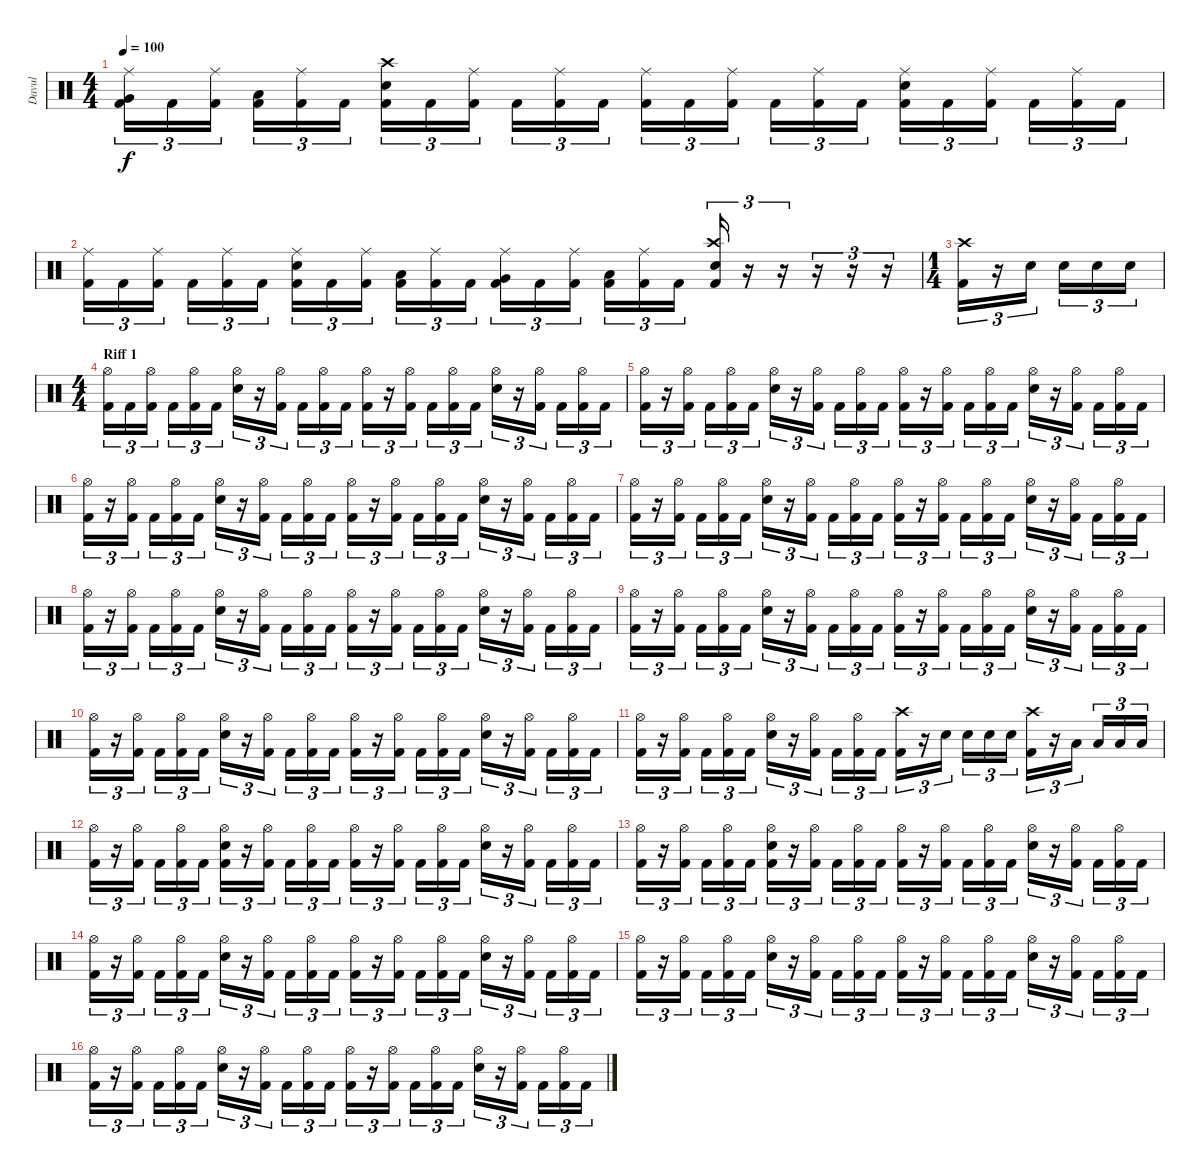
\track ("Davul" "Davul") {instrument percussion}
\staff {score}
\articulation defaults
\ts (4 4)
\tempo 100
\clef neutral
\ks c
("Ride (middle)" "Very Low Tom (hit)" "Kick (hit) 2").16{tu (3 2) dy f} "Kick (hit) 2".16{tu (3 2)} ("Ride (middle)" "Kick (hit) 2").16{tu (3 2)} ("Low Floor Tom (hit)" "Kick (hit) 2").16{tu (3 2)} ("Ride (middle)" "Kick (hit) 2").16{tu (3 2)} "Kick (hit) 2".16{tu (3 2)} ("Crash high (hit)" "Electric Snare (hit)" "Kick (hit) 2").16{tu (3 2)} "Kick (hit) 2".16{tu (3 2)} ("Ride (middle)" "Kick (hit) 2").16{tu (3 2)} "Kick (hit) 2".16{tu (3 2)} ("Ride (middle)" "Kick (hit) 2").16{tu (3 2)} "Kick (hit) 2".16{tu (3 2)} ("Ride (middle)" "Kick (hit) 2").16{tu (3 2)} "Kick (hit) 2".16{tu (3 2)} ("Ride (middle)" "Kick (hit) 2").16{tu (3 2)} "Kick (hit) 2".16{tu (3 2)} ("Ride (middle)" "Kick (hit) 2").16{tu (3 2)} "Kick (hit) 2".16{tu (3 2)} ("Ride (middle)" "Electric Snare (hit)" "Kick (hit) 2").16{tu (3 2)} "Kick (hit) 2".16{tu (3 2)} ("Ride (middle)" "Kick (hit) 2").16{tu (3 2)} "Kick (hit) 2".16{tu (3 2)} ("Ride (middle)" "Kick (hit) 2").16{tu (3 2)} "Kick (hit) 2".16{tu (3 2)} |
("Ride (middle)" "Kick (hit) 2").16{tu (3 2)} "Kick (hit) 2".16{tu (3 2)} ("Ride (middle)" "Kick (hit) 2").16{tu (3 2)} "Kick (hit) 2".16{tu (3 2)} ("Ride (middle)" "Kick (hit) 2").16{tu (3 2)} "Kick (hit) 2".16{tu (3 2)} ("Ride (middle)" "Electric Snare (hit)" "Kick (hit) 2").16{tu (3 2)} "Kick (hit) 2".16{tu (3 2)} ("Ride (middle)" "Kick (hit) 2").16{tu (3 2)} ("Low Tom (hit)" "Kick (hit) 2").16{tu (3 2)} ("Ride (middle)" "Kick (hit) 2").16{tu (3 2)} "Kick (hit) 2".16{tu (3 2)} ("Ride (middle)" "Very Low Tom (hit)" "Kick (hit) 2").16{tu (3 2)} "Kick (hit) 2".16{tu (3 2)} ("Ride (middle)" "Kick (hit) 2").16{tu (3 2)} ("Low Floor Tom (hit)" "Kick (hit) 2").16{tu (3 2)} ("Ride (middle)" "Kick (hit) 2").16{tu (3 2)} "Kick (hit) 2".16{tu (3 2)} ("Crash high (hit)" "Electric Snare (hit)" "Kick (hit) 2").16{tu (3 2)} r.16{tu (3 2)} r.16{tu (3 2)} r.16{tu (3 2)} r.16{tu (3 2)} r.16{tu (3 2)} |
\ts (1 4)
("Crash high (hit)" "Kick (hit) 2").16{tu (3 2)} r.16{tu (3 2)} "Electric Snare (hit)".16{tu (3 2)} "Electric Snare (hit)".16{tu (3 2)} "Electric Snare (hit)".16{tu (3 2)} "Electric Snare (hit)".16{tu (3 2)} |
\ts (4 4)
\section ("" "Riff 1")
("Hi-Hat (open)" "Kick (hit) 2").16{tu (3 2)} "Kick (hit) 2".16{tu (3 2)} ("Hi-Hat (open)" "Kick (hit) 2").16{tu (3 2)} "Kick (hit) 2".16{tu (3 2)} ("Hi-Hat (open)" "Kick (hit) 2").16{tu (3 2)} "Kick (hit) 2".16{tu (3 2)} ("Hi-Hat (open)" "Electric Snare (hit)").16{tu (3 2)} r.16{tu (3 2)} ("Hi-Hat (open)" "Kick (hit) 2").16{tu (3 2)} "Kick (hit) 2".16{tu (3 2)} ("Hi-Hat (open)" "Kick (hit) 2").16{tu (3 2)} "Kick (hit) 2".16{tu (3 2)} ("Hi-Hat (open)" "Kick (hit) 2").16{tu (3 2)} r.16{tu (3 2)} ("Hi-Hat (open)" "Kick (hit) 2").16{tu (3 2)} "Kick (hit) 2".16{tu (3 2)} ("Hi-Hat (open)" "Kick (hit) 2").16{tu (3 2)} "Kick (hit) 2".16{tu (3 2)} ("Hi-Hat (open)" "Electric Snare (hit)").16{tu (3 2)} r.16{tu (3 2)} ("Hi-Hat (open)" "Kick (hit) 2").16{tu (3 2)} "Kick (hit) 2".16{tu (3 2)} ("Hi-Hat (open)" "Kick (hit) 2").16{tu (3 2)} "Kick (hit) 2".16{tu (3 2)} |
("Hi-Hat (open)" "Kick (hit) 2").16{tu (3 2)} r.16{tu (3 2)} ("Hi-Hat (open)" "Kick (hit) 2").16{tu (3 2)} "Kick (hit) 2".16{tu (3 2)} ("Hi-Hat (open)" "Kick (hit) 2").16{tu (3 2)} "Kick (hit) 2".16{tu (3 2)} ("Hi-Hat (open)" "Electric Snare (hit)").16{tu (3 2)} r.16{tu (3 2)} ("Hi-Hat (open)" "Kick (hit) 2").16{tu (3 2)} "Kick (hit) 2".16{tu (3 2)} ("Hi-Hat (open)" "Kick (hit) 2").16{tu (3 2)} "Kick (hit) 2".16{tu (3 2)} ("Hi-Hat (open)" "Kick (hit) 2").16{tu (3 2)} r.16{tu (3 2)} ("Hi-Hat (open)" "Kick (hit) 2").16{tu (3 2)} "Kick (hit) 2".16{tu (3 2)} ("Hi-Hat (open)" "Kick (hit) 2").16{tu (3 2)} "Kick (hit) 2".16{tu (3 2)} ("Hi-Hat (open)" "Electric Snare (hit)").16{tu (3 2)} r.16{tu (3 2)} ("Hi-Hat (open)" "Kick (hit) 2").16{tu (3 2)} "Kick (hit) 2".16{tu (3 2)} ("Hi-Hat (open)" "Kick (hit) 2").16{tu (3 2)} "Kick (hit) 2".16{tu (3 2)} |
("Hi-Hat (open)" "Kick (hit) 2").16{tu (3 2)} r.16{tu (3 2)} ("Hi-Hat (open)" "Kick (hit) 2").16{tu (3 2)} "Kick (hit) 2".16{tu (3 2)} ("Hi-Hat (open)" "Kick (hit) 2").16{tu (3 2)} "Kick (hit) 2".16{tu (3 2)} ("Hi-Hat (open)" "Electric Snare (hit)").16{tu (3 2)} r.16{tu (3 2)} ("Hi-Hat (open)" "Kick (hit) 2").16{tu (3 2)} "Kick (hit) 2".16{tu (3 2)} ("Hi-Hat (open)" "Kick (hit) 2").16{tu (3 2)} "Kick (hit) 2".16{tu (3 2)} ("Hi-Hat (open)" "Kick (hit) 2").16{tu (3 2)} r.16{tu (3 2)} ("Hi-Hat (open)" "Kick (hit) 2").16{tu (3 2)} "Kick (hit) 2".16{tu (3 2)} ("Hi-Hat (open)" "Kick (hit) 2").16{tu (3 2)} "Kick (hit) 2".16{tu (3 2)} ("Hi-Hat (open)" "Electric Snare (hit)").16{tu (3 2)} r.16{tu (3 2)} ("Hi-Hat (open)" "Kick (hit) 2").16{tu (3 2)} "Kick (hit) 2".16{tu (3 2)} ("Hi-Hat (open)" "Kick (hit) 2").16{tu (3 2)} "Kick (hit) 2".16{tu (3 2)} |
("Hi-Hat (open)" "Kick (hit) 2").16{tu (3 2)} r.16{tu (3 2)} ("Hi-Hat (open)" "Kick (hit) 2").16{tu (3 2)} "Kick (hit) 2".16{tu (3 2)} ("Hi-Hat (open)" "Kick (hit) 2").16{tu (3 2)} "Kick (hit) 2".16{tu (3 2)} ("Hi-Hat (open)" "Electric Snare (hit)").16{tu (3 2)} r.16{tu (3 2)} ("Hi-Hat (open)" "Kick (hit) 2").16{tu (3 2)} "Kick (hit) 2".16{tu (3 2)} ("Hi-Hat (open)" "Kick (hit) 2").16{tu (3 2)} "Kick (hit) 2".16{tu (3 2)} ("Hi-Hat (open)" "Kick (hit) 2").16{tu (3 2)} r.16{tu (3 2)} ("Hi-Hat (open)" "Kick (hit) 2").16{tu (3 2)} "Kick (hit) 2".16{tu (3 2)} ("Hi-Hat (open)" "Kick (hit) 2").16{tu (3 2)} "Kick (hit) 2".16{tu (3 2)} ("Hi-Hat (open)" "Electric Snare (hit)").16{tu (3 2)} r.16{tu (3 2)} ("Hi-Hat (open)" "Kick (hit) 2").16{tu (3 2)} "Kick (hit) 2".16{tu (3 2)} ("Hi-Hat (open)" "Kick (hit) 2").16{tu (3 2)} "Kick (hit) 2".16{tu (3 2)} |
("Hi-Hat (open)" "Kick (hit) 2").16{tu (3 2)} r.16{tu (3 2)} ("Hi-Hat (open)" "Kick (hit) 2").16{tu (3 2)} "Kick (hit) 2".16{tu (3 2)} ("Hi-Hat (open)" "Kick (hit) 2").16{tu (3 2)} "Kick (hit) 2".16{tu (3 2)} ("Hi-Hat (open)" "Electric Snare (hit)").16{tu (3 2)} r.16{tu (3 2)} ("Hi-Hat (open)" "Kick (hit) 2").16{tu (3 2)} "Kick (hit) 2".16{tu (3 2)} ("Hi-Hat (open)" "Kick (hit) 2").16{tu (3 2)} "Kick (hit) 2".16{tu (3 2)} ("Hi-Hat (open)" "Kick (hit) 2").16{tu (3 2)} r.16{tu (3 2)} ("Hi-Hat (open)" "Kick (hit) 2").16{tu (3 2)} "Kick (hit) 2".16{tu (3 2)} ("Hi-Hat (open)" "Kick (hit) 2").16{tu (3 2)} "Kick (hit) 2".16{tu (3 2)} ("Hi-Hat (open)" "Electric Snare (hit)").16{tu (3 2)} r.16{tu (3 2)} ("Hi-Hat (open)" "Kick (hit) 2").16{tu (3 2)} "Kick (hit) 2".16{tu (3 2)} ("Hi-Hat (open)" "Kick (hit) 2").16{tu (3 2)} "Kick (hit) 2".16{tu (3 2)} |
("Hi-Hat (open)" "Kick (hit) 2").16{tu (3 2)} r.16{tu (3 2)} ("Hi-Hat (open)" "Kick (hit) 2").16{tu (3 2)} "Kick (hit) 2".16{tu (3 2)} ("Hi-Hat (open)" "Kick (hit) 2").16{tu (3 2)} "Kick (hit) 2".16{tu (3 2)} ("Hi-Hat (open)" "Electric Snare (hit)").16{tu (3 2)} r.16{tu (3 2)} ("Hi-Hat (open)" "Kick (hit) 2").16{tu (3 2)} "Kick (hit) 2".16{tu (3 2)} ("Hi-Hat (open)" "Kick (hit) 2").16{tu (3 2)} "Kick (hit) 2".16{tu (3 2)} ("Hi-Hat (open)" "Kick (hit) 2").16{tu (3 2)} r.16{tu (3 2)} ("Hi-Hat (open)" "Kick (hit) 2").16{tu (3 2)} "Kick (hit) 2".16{tu (3 2)} ("Hi-Hat (open)" "Kick (hit) 2").16{tu (3 2)} "Kick (hit) 2".16{tu (3 2)} ("Hi-Hat (open)" "Electric Snare (hit)").16{tu (3 2)} r.16{tu (3 2)} ("Hi-Hat (open)" "Kick (hit) 2").16{tu (3 2)} "Kick (hit) 2".16{tu (3 2)} ("Hi-Hat (open)" "Kick (hit) 2").16{tu (3 2)} "Kick (hit) 2".16{tu (3 2)} |
("Hi-Hat (open)" "Kick (hit) 2").16{tu (3 2)} r.16{tu (3 2)} ("Hi-Hat (open)" "Kick (hit) 2").16{tu (3 2)} "Kick (hit) 2".16{tu (3 2)} ("Hi-Hat (open)" "Kick (hit) 2").16{tu (3 2)} "Kick (hit) 2".16{tu (3 2)} ("Hi-Hat (open)" "Electric Snare (hit)").16{tu (3 2)} r.16{tu (3 2)} ("Hi-Hat (open)" "Kick (hit) 2").16{tu (3 2)} "Kick (hit) 2".16{tu (3 2)} ("Hi-Hat (open)" "Kick (hit) 2").16{tu (3 2)} "Kick (hit) 2".16{tu (3 2)} ("Hi-Hat (open)" "Kick (hit) 2").16{tu (3 2)} r.16{tu (3 2)} ("Hi-Hat (open)" "Kick (hit) 2").16{tu (3 2)} "Kick (hit) 2".16{tu (3 2)} ("Hi-Hat (open)" "Kick (hit) 2").16{tu (3 2)} "Kick (hit) 2".16{tu (3 2)} ("Hi-Hat (open)" "Electric Snare (hit)").16{tu (3 2)} r.16{tu (3 2)} ("Hi-Hat (open)" "Kick (hit) 2").16{tu (3 2)} "Kick (hit) 2".16{tu (3 2)} ("Hi-Hat (open)" "Kick (hit) 2").16{tu (3 2)} "Kick (hit) 2".16{tu (3 2)} |
("Hi-Hat (open)" "Kick (hit) 2").16{tu (3 2)} r.16{tu (3 2)} ("Hi-Hat (open)" "Kick (hit) 2").16{tu (3 2)} "Kick (hit) 2".16{tu (3 2)} ("Hi-Hat (open)" "Kick (hit) 2").16{tu (3 2)} "Kick (hit) 2".16{tu (3 2)} ("Hi-Hat (open)" "Electric Snare (hit)").16{tu (3 2)} r.16{tu (3 2)} ("Hi-Hat (open)" "Kick (hit) 2").16{tu (3 2)} "Kick (hit) 2".16{tu (3 2)} ("Hi-Hat (open)" "Kick (hit) 2").16{tu (3 2)} "Kick (hit) 2".16{tu (3 2)} ("Crash high (hit)" "Kick (hit) 2").16{tu (3 2)} r.16{tu (3 2)} "Electric Snare (hit)".16{tu (3 2)} "Electric Snare (hit)".16{tu (3 2)} "Electric Snare (hit)".16{tu (3 2)} "Electric Snare (hit)".16{tu (3 2)} ("Crash high (hit)" "Kick (hit) 2").16{tu (3 2)} r.16{tu (3 2)} "Low Tom (hit)".16{tu (3 2)} "Low Tom (hit)".16{tu (3 2)} "Low Tom (hit)".16{tu (3 2)} "Low Tom (hit)".16{tu (3 2)} |
("Hi-Hat (open)" "Kick (hit) 2").16{tu (3 2)} r.16{tu (3 2)} ("Hi-Hat (open)" "Kick (hit) 2").16{tu (3 2)} "Kick (hit) 2".16{tu (3 2)} ("Hi-Hat (open)" "Kick (hit) 2").16{tu (3 2)} "Kick (hit) 2".16{tu (3 2)} ("Hi-Hat (open)" "Electric Snare (hit)" "Kick (hit) 2").16{tu (3 2)} r.16{tu (3 2)} ("Hi-Hat (open)" "Kick (hit) 2").16{tu (3 2)} "Kick (hit) 2".16{tu (3 2)} ("Hi-Hat (open)" "Kick (hit) 2").16{tu (3 2)} "Kick (hit) 2".16{tu (3 2)} ("Hi-Hat (open)" "Kick (hit) 2").16{tu (3 2)} r.16{tu (3 2)} ("Hi-Hat (open)" "Kick (hit) 2").16{tu (3 2)} "Kick (hit) 2".16{tu (3 2)} ("Hi-Hat (open)" "Kick (hit) 2").16{tu (3 2)} "Kick (hit) 2".16{tu (3 2)} ("Hi-Hat (open)" "Electric Snare (hit)").16{tu (3 2)} r.16{tu (3 2)} ("Hi-Hat (open)" "Kick (hit) 2").16{tu (3 2)} "Kick (hit) 2".16{tu (3 2)} ("Hi-Hat (open)" "Kick (hit) 2").16{tu (3 2)} "Kick (hit) 2".16{tu (3 2)} |
("Hi-Hat (open)" "Kick (hit) 2").16{tu (3 2)} r.16{tu (3 2)} ("Hi-Hat (open)" "Kick (hit) 2").16{tu (3 2)} "Kick (hit) 2".16{tu (3 2)} ("Hi-Hat (open)" "Kick (hit) 2").16{tu (3 2)} "Kick (hit) 2".16{tu (3 2)} ("Hi-Hat (open)" "Electric Snare (hit)" "Kick (hit) 2").16{tu (3 2)} r.16{tu (3 2)} ("Hi-Hat (open)" "Kick (hit) 2").16{tu (3 2)} "Kick (hit) 2".16{tu (3 2)} ("Hi-Hat (open)" "Kick (hit) 2").16{tu (3 2)} "Kick (hit) 2".16{tu (3 2)} ("Hi-Hat (open)" "Kick (hit) 2").16{tu (3 2)} r.16{tu (3 2)} ("Hi-Hat (open)" "Kick (hit) 2").16{tu (3 2)} "Kick (hit) 2".16{tu (3 2)} ("Hi-Hat (open)" "Kick (hit) 2").16{tu (3 2)} "Kick (hit) 2".16{tu (3 2)} ("Hi-Hat (open)" "Electric Snare (hit)").16{tu (3 2)} r.16{tu (3 2)} ("Hi-Hat (open)" "Kick (hit) 2").16{tu (3 2)} "Kick (hit) 2".16{tu (3 2)} ("Hi-Hat (open)" "Kick (hit) 2").16{tu (3 2)} "Kick (hit) 2".16{tu (3 2)} |
("Hi-Hat (open)" "Kick (hit) 2").16{tu (3 2)} r.16{tu (3 2)} ("Hi-Hat (open)" "Kick (hit) 2").16{tu (3 2)} "Kick (hit) 2".16{tu (3 2)} ("Hi-Hat (open)" "Kick (hit) 2").16{tu (3 2)} "Kick (hit) 2".16{tu (3 2)} ("Hi-Hat (open)" "Electric Snare (hit)").16{tu (3 2)} r.16{tu (3 2)} ("Hi-Hat (open)" "Kick (hit) 2").16{tu (3 2)} "Kick (hit) 2".16{tu (3 2)} ("Hi-Hat (open)" "Kick (hit) 2").16{tu (3 2)} "Kick (hit) 2".16{tu (3 2)} ("Hi-Hat (open)" "Kick (hit) 2").16{tu (3 2)} r.16{tu (3 2)} ("Hi-Hat (open)" "Kick (hit) 2").16{tu (3 2)} "Kick (hit) 2".16{tu (3 2)} ("Hi-Hat (open)" "Kick (hit) 2").16{tu (3 2)} "Kick (hit) 2".16{tu (3 2)} ("Hi-Hat (open)" "Electric Snare (hit)").16{tu (3 2)} r.16{tu (3 2)} ("Hi-Hat (open)" "Kick (hit) 2").16{tu (3 2)} "Kick (hit) 2".16{tu (3 2)} ("Hi-Hat (open)" "Kick (hit) 2").16{tu (3 2)} "Kick (hit) 2".16{tu (3 2)} |
("Hi-Hat (open)" "Kick (hit) 2").16{tu (3 2)} r.16{tu (3 2)} ("Hi-Hat (open)" "Kick (hit) 2").16{tu (3 2)} "Kick (hit) 2".16{tu (3 2)} ("Hi-Hat (open)" "Kick (hit) 2").16{tu (3 2)} "Kick (hit) 2".16{tu (3 2)} ("Hi-Hat (open)" "Electric Snare (hit)").16{tu (3 2)} r.16{tu (3 2)} ("Hi-Hat (open)" "Kick (hit) 2").16{tu (3 2)} "Kick (hit) 2".16{tu (3 2)} ("Hi-Hat (open)" "Kick (hit) 2").16{tu (3 2)} "Kick (hit) 2".16{tu (3 2)} ("Hi-Hat (open)" "Kick (hit) 2").16{tu (3 2)} r.16{tu (3 2)} ("Hi-Hat (open)" "Kick (hit) 2").16{tu (3 2)} "Kick (hit) 2".16{tu (3 2)} ("Hi-Hat (open)" "Kick (hit) 2").16{tu (3 2)} "Kick (hit) 2".16{tu (3 2)} ("Hi-Hat (open)" "Electric Snare (hit)").16{tu (3 2)} r.16{tu (3 2)} ("Hi-Hat (open)" "Kick (hit) 2").16{tu (3 2)} "Kick (hit) 2".16{tu (3 2)} ("Hi-Hat (open)" "Kick (hit) 2").16{tu (3 2)} "Kick (hit) 2".16{tu (3 2)} |
("Hi-Hat (open)" "Kick (hit) 2").16{tu (3 2)} r.16{tu (3 2)} ("Hi-Hat (open)" "Kick (hit) 2").16{tu (3 2)} "Kick (hit) 2".16{tu (3 2)} ("Hi-Hat (open)" "Kick (hit) 2").16{tu (3 2)} "Kick (hit) 2".16{tu (3 2)} ("Hi-Hat (open)" "Electric Snare (hit)").16{tu (3 2)} r.16{tu (3 2)} ("Hi-Hat (open)" "Kick (hit) 2").16{tu (3 2)} "Kick (hit) 2".16{tu (3 2)} ("Hi-Hat (open)" "Kick (hit) 2").16{tu (3 2)} "Kick (hit) 2".16{tu (3 2)} ("Hi-Hat (open)" "Kick (hit) 2").16{tu (3 2)} r.16{tu (3 2)} ("Hi-Hat (open)" "Kick (hit) 2").16{tu (3 2)} "Kick (hit) 2".16{tu (3 2)} ("Hi-Hat (open)" "Kick (hit) 2").16{tu (3 2)} "Kick (hit) 2".16{tu (3 2)} ("Hi-Hat (open)" "Electric Snare (hit)").16{tu (3 2)} r.16{tu (3 2)} ("Hi-Hat (open)" "Kick (hit) 2").16{tu (3 2)} "Kick (hit) 2".16{tu (3 2)} ("Hi-Hat (open)" "Kick (hit) 2").16{tu (3 2)} "Kick (hit) 2".16{tu (3 2)}
